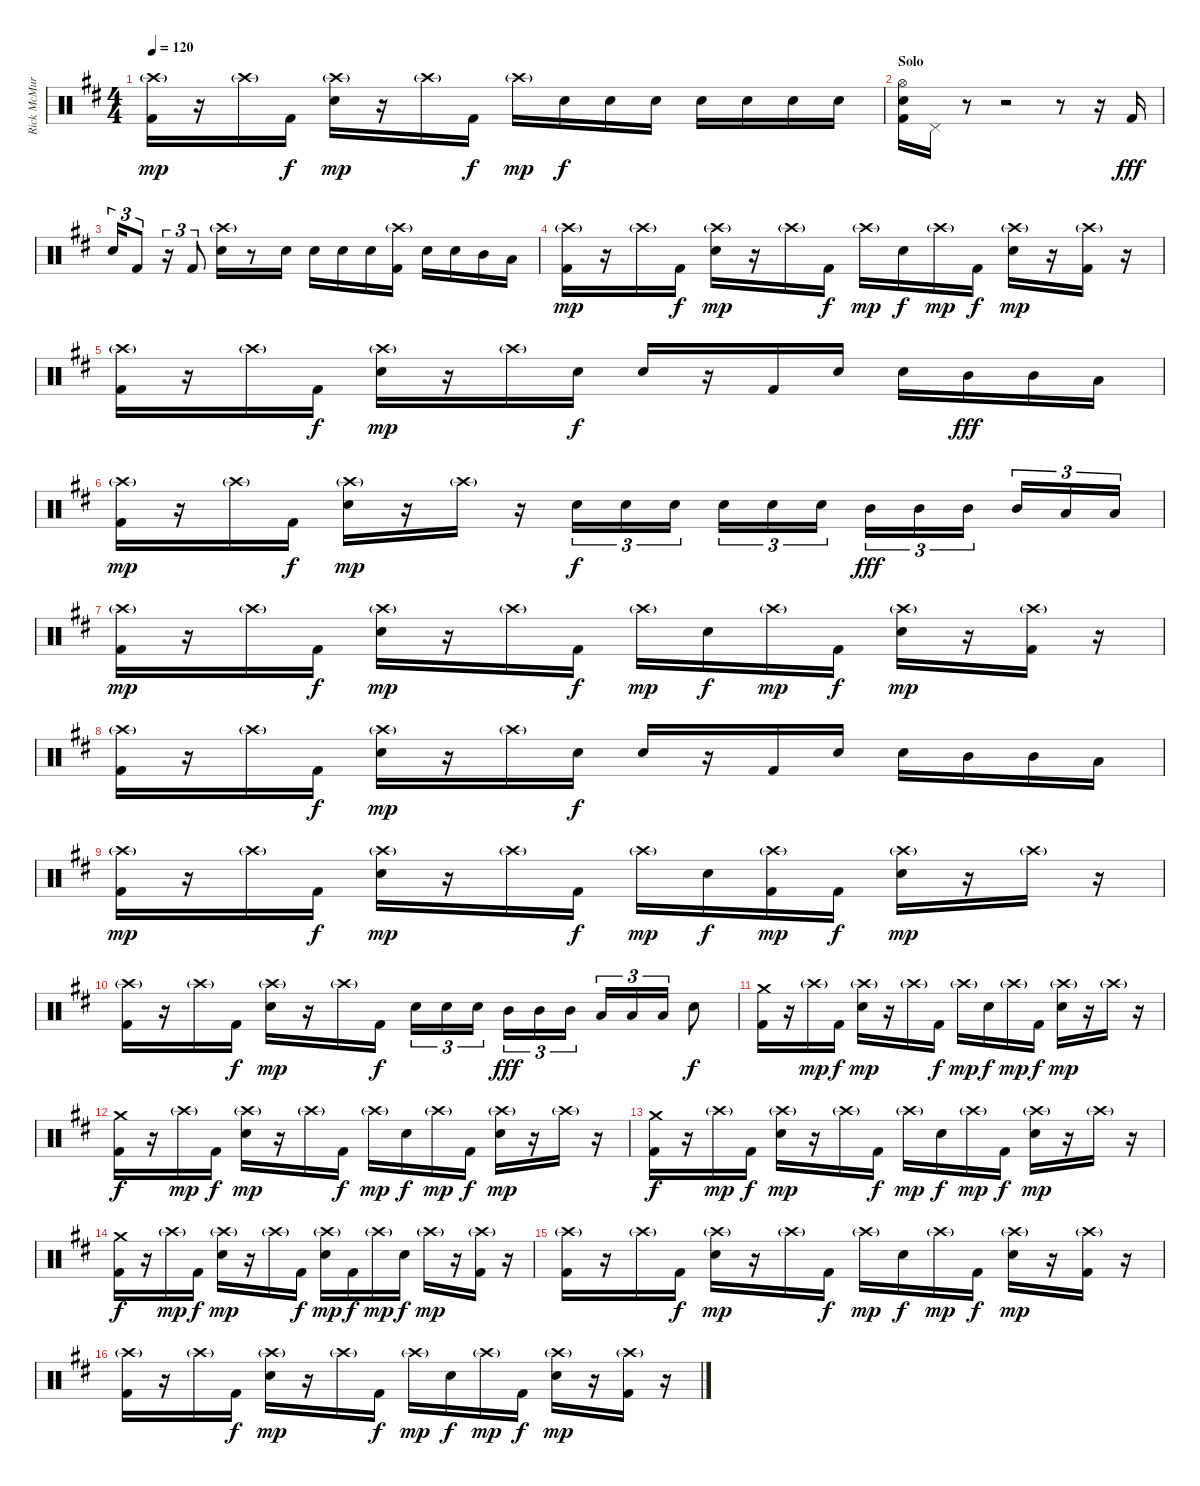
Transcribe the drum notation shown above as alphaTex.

\track ("Rick McMurray" "Rick McMur") {instrument percussion}
\staff {score}
\articulation defaults
\ts (4 4)
\tempo 120
\clef neutral
\ks d
("Crash high (hit)"{g} "Kick (hit) 2").16{dy mp} r.16 "Crash high (hit)"{g}.16 "Kick (hit) 2".16{dy f} ("Crash high (hit)"{g} "Snare (hit) 2").16{dy mp} r.16 "Crash high (hit)"{g}.16 "Kick (hit) 2".16{dy f} "Crash high (hit)"{g}.16{dy mp} "Snare (hit) 2".16{dy f} "Snare (hit) 2".16 "Snare (hit) 2".16 "Snare (hit) 2".16 "Snare (hit) 2".16 "Snare (hit) 2".16 "Snare (hit) 2".16 |
\section ("" "Solo")
("Hi-Hat (open)" "Snare (hit) 2" "Kick (hit) 2").16 "Pedal Hi-Hat (hit)".16 r.8 r.2 r.8 r.16 "Kick (hit) 2".16{dy fff} |
"Electric Snare (hit)".16{tu (3 2)} "Kick (hit) 2".8{tu (3 2)} r.16{tu (3 2)} "Kick (hit) 2".8{tu (3 2)} ("Crash high (hit)"{g} "Electric Snare (hit)").16 r.8 "Electric Snare (hit)".16 "Electric Snare (hit)".16 "Electric Snare (hit)".16 "Electric Snare (hit)".16 ("Crash high (hit)"{g} "Kick (hit) 2").16 "Electric Snare (hit)".16 "Electric Snare (hit)".16 "Mid Tom (hit)".16 "Low Tom (hit)".16 |
("Crash high (hit)"{g} "Kick (hit) 2").16{dy mp} r.16 "Crash high (hit)"{g}.16 "Kick (hit) 2".16{dy f} ("Crash high (hit)"{g} "Snare (hit) 2").16{dy mp} r.16 "Crash high (hit)"{g}.16 "Kick (hit) 2".16{dy f} "Crash high (hit)"{g}.16{dy mp} "Snare (hit) 2".16{dy f} "Crash high (hit)"{g}.16{dy mp} "Kick (hit) 2".16{dy f} ("Crash high (hit)"{g} "Snare (hit) 2").16{dy mp} r.16 ("Crash high (hit)"{g} "Kick (hit) 2").16 r.16 |
("Crash high (hit)"{g} "Kick (hit) 2").16 r.16 "Crash high (hit)"{g}.16 "Kick (hit) 2".16{dy f} ("Crash high (hit)"{g} "Snare (hit) 2").16{dy mp} r.16 "Crash high (hit)"{g}.16 "Snare (hit) 2".16{dy f} "Snare (hit) 2".16 r.16 "Kick (hit) 2".16 "Snare (hit) 2".16 "Snare (hit) 2".16 "Mid Tom (hit)".16{dy fff} "Mid Tom (hit)".16 "Low Tom (hit)".16 |
("Crash high (hit)"{g} "Kick (hit) 2").16{dy mp} r.16 "Crash high (hit)"{g}.16 "Kick (hit) 2".16{dy f} ("Crash high (hit)"{g} "Snare (hit) 2").16{dy mp} r.16 "Crash high (hit)"{g}.16 r.16 "Snare (hit) 2".16{tu (3 2) dy f} "Snare (hit) 2".16{tu (3 2)} "Snare (hit) 2".16{tu (3 2)} "Snare (hit) 2".16{tu (3 2)} "Snare (hit) 2".16{tu (3 2)} "Snare (hit) 2".16{tu (3 2)} "Mid Tom (hit)".16{tu (3 2) dy fff} "Mid Tom (hit)".16{tu (3 2)} "Mid Tom (hit)".16{tu (3 2)} "Mid Tom (hit)".16{tu (3 2)} "Low Tom (hit)".16{tu (3 2)} "Low Tom (hit)".16{tu (3 2)} |
("Crash high (hit)"{g} "Kick (hit) 2").16{dy mp} r.16 "Crash high (hit)"{g}.16 "Kick (hit) 2".16{dy f} ("Crash high (hit)"{g} "Snare (hit) 2").16{dy mp} r.16 "Crash high (hit)"{g}.16 "Kick (hit) 2".16{dy f} "Crash high (hit)"{g}.16{dy mp} "Snare (hit) 2".16{dy f} "Crash high (hit)"{g}.16{dy mp} "Kick (hit) 2".16{dy f} ("Crash high (hit)"{g} "Snare (hit) 2").16{dy mp} r.16 ("Crash high (hit)"{g} "Kick (hit) 2").16 r.16 |
("Crash high (hit)"{g} "Kick (hit) 2").16 r.16 "Crash high (hit)"{g}.16 "Kick (hit) 2".16{dy f} ("Crash high (hit)"{g} "Snare (hit) 2").16{dy mp} r.16 "Crash high (hit)"{g}.16 "Snare (hit) 2".16{dy f} "Snare (hit) 2".16 r.16 "Kick (hit) 2".16 "Snare (hit) 2".16 "Snare (hit) 2".16 "Mid Tom (hit)".16 "Mid Tom (hit)".16 "Low Tom (hit)".16 |
("Crash high (hit)"{g} "Kick (hit) 2").16{dy mp} r.16 "Crash high (hit)"{g}.16 "Kick (hit) 2".16{dy f} ("Crash high (hit)"{g} "Snare (hit) 2").16{dy mp} r.16 "Crash high (hit)"{g}.16 "Kick (hit) 2".16{dy f} "Crash high (hit)"{g}.16{dy mp} "Snare (hit) 2".16{dy f} ("Crash high (hit)"{g} "Kick (hit) 2").16{dy mp} "Kick (hit) 2".16{dy f} ("Crash high (hit)"{g} "Snare (hit) 2").16{dy mp} r.16 "Crash high (hit)"{g}.16 r.16 |
("Crash high (hit)"{g} "Kick (hit) 2").16 r.16 "Crash high (hit)"{g}.16 "Kick (hit) 2".16{dy f} ("Crash high (hit)"{g} "Snare (hit) 2").16{dy mp} r.16 "Crash high (hit)"{g}.16 "Kick (hit) 2".16{dy f} "Snare (hit) 2".16{tu (3 2)} "Snare (hit) 2".16{tu (3 2)} "Snare (hit) 2".16{tu (3 2)} "Mid Tom (hit)".16{tu (3 2) dy fff} "Mid Tom (hit)".16{tu (3 2)} "Mid Tom (hit)".16{tu (3 2)} "Low Tom (hit)".16{tu (3 2)} "Low Tom (hit)".16{tu (3 2)} "Low Tom (hit)".16{tu (3 2)} "Snare (hit) 2".8{dy f} |
("Crash medium (hit)" "Kick (hit) 2").16 r.16 "Crash high (hit)"{g}.16{dy mp} "Kick (hit) 2".16{dy f} ("Crash high (hit)"{g} "Snare (hit) 2").16{dy mp} r.16 "Crash high (hit)"{g}.16 "Kick (hit) 2".16{dy f} "Crash high (hit)"{g}.16{dy mp} "Snare (hit) 2".16{dy f} "Crash high (hit)"{g}.16{dy mp} "Kick (hit) 2".16{dy f} ("Crash high (hit)"{g} "Snare (hit) 2").16{dy mp} r.16 "Crash high (hit)"{g}.16 r.16 |
("Crash medium (hit)" "Kick (hit) 2").16{dy f} r.16 "Crash high (hit)"{g}.16{dy mp} "Kick (hit) 2".16{dy f} ("Crash high (hit)"{g} "Snare (hit) 2").16{dy mp} r.16 "Crash high (hit)"{g}.16 "Kick (hit) 2".16{dy f} "Crash high (hit)"{g}.16{dy mp} "Snare (hit) 2".16{dy f} "Crash high (hit)"{g}.16{dy mp} "Kick (hit) 2".16{dy f} ("Crash high (hit)"{g} "Snare (hit) 2").16{dy mp} r.16 "Crash high (hit)"{g}.16 r.16 |
("Crash medium (hit)" "Kick (hit) 2").16{dy f} r.16 "Crash high (hit)"{g}.16{dy mp} "Kick (hit) 2".16{dy f} ("Crash high (hit)"{g} "Snare (hit) 2").16{dy mp} r.16 "Crash high (hit)"{g}.16 "Kick (hit) 2".16{dy f} "Crash high (hit)"{g}.16{dy mp} "Snare (hit) 2".16{dy f} "Crash high (hit)"{g}.16{dy mp} "Kick (hit) 2".16{dy f} ("Crash high (hit)"{g} "Snare (hit) 2").16{dy mp} r.16 "Crash high (hit)"{g}.16 r.16 |
("Crash medium (hit)" "Kick (hit) 2").16{dy f} r.16 "Crash high (hit)"{g}.16{dy mp} "Kick (hit) 2".16{dy f} ("Crash high (hit)"{g} "Snare (hit) 2").16{dy mp} r.16 "Crash high (hit)"{g}.16 "Kick (hit) 2".16{dy f} ("Crash high (hit)"{g} "Snare (hit) 2").16{dy mp} "Kick (hit) 2".16{dy f} "Crash high (hit)"{g}.16{dy mp} "Snare (hit) 2".16{dy f} "Crash high (hit)"{g}.16{dy mp} r.16 ("Crash high (hit)"{g} "Kick (hit) 2").16 r.16 |
("Crash high (hit)"{g} "Kick (hit) 2").16 r.16 "Crash high (hit)"{g}.16 "Kick (hit) 2".16{dy f} ("Crash high (hit)"{g} "Snare (hit) 2").16{dy mp} r.16 "Crash high (hit)"{g}.16 "Kick (hit) 2".16{dy f} "Crash high (hit)"{g}.16{dy mp} "Snare (hit) 2".16{dy f} "Crash high (hit)"{g}.16{dy mp} "Kick (hit) 2".16{dy f} ("Crash high (hit)"{g} "Snare (hit) 2").16{dy mp} r.16 ("Crash high (hit)"{g} "Kick (hit) 2").16 r.16 |
("Crash high (hit)"{g} "Kick (hit) 2").16 r.16 "Crash high (hit)"{g}.16 "Kick (hit) 2".16{dy f} ("Crash high (hit)"{g} "Snare (hit) 2").16{dy mp} r.16 "Crash high (hit)"{g}.16 "Kick (hit) 2".16{dy f} "Crash high (hit)"{g}.16{dy mp} "Snare (hit) 2".16{dy f} "Crash high (hit)"{g}.16{dy mp} "Kick (hit) 2".16{dy f} ("Crash high (hit)"{g} "Snare (hit) 2").16{dy mp} r.16 ("Crash high (hit)"{g} "Kick (hit) 2").16 r.16
